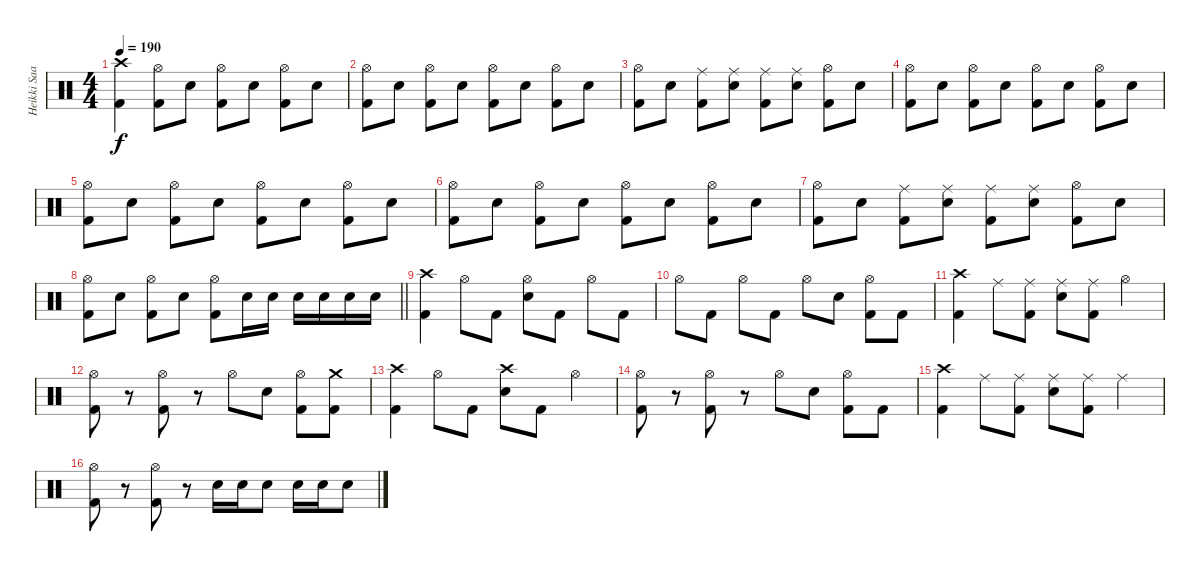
\track ("Heikki Saari" "Heikki Saa") {instrument percussion}
\staff {score}
\articulation defaults
\ts (4 4)
\tempo 190
\clef neutral
\ks c
("Crash high (hit)" "Kick (hit) 2").4{dy f} ("Hi-Hat (open)" "Kick (hit) 2").8 "Snare (hit) 2".8 ("Hi-Hat (open)" "Kick (hit) 2").8 "Snare (hit) 2".8 ("Hi-Hat (open)" "Kick (hit) 2").8 "Snare (hit) 2".8 |
("Hi-Hat (open)" "Kick (hit) 2").8 "Snare (hit) 2".8 ("Hi-Hat (open)" "Kick (hit) 2").8 "Snare (hit) 2".8 ("Hi-Hat (open)" "Kick (hit) 2").8 "Snare (hit) 2".8 ("Hi-Hat (open)" "Kick (hit) 2").8 "Snare (hit) 2".8 |
("Hi-Hat (open)" "Kick (hit) 2").8 "Snare (hit) 2".8 ("Ride (middle)" "Kick (hit) 2").8 ("Ride (middle)" "Snare (hit) 2").8 ("Ride (middle)" "Kick (hit) 2").8 ("Ride (middle)" "Snare (hit) 2").8 ("Hi-Hat (open)" "Kick (hit) 2").8 "Snare (hit) 2".8 |
("Hi-Hat (open)" "Kick (hit) 2").8 "Snare (hit) 2".8 ("Hi-Hat (open)" "Kick (hit) 2").8 "Snare (hit) 2".8 ("Hi-Hat (open)" "Kick (hit) 2").8 "Snare (hit) 2".8 ("Hi-Hat (open)" "Kick (hit) 2").8 "Snare (hit) 2".8 |
("Hi-Hat (open)" "Kick (hit) 2").8 "Snare (hit) 2".8 ("Hi-Hat (open)" "Kick (hit) 2").8 "Snare (hit) 2".8 ("Hi-Hat (open)" "Kick (hit) 2").8 "Snare (hit) 2".8 ("Hi-Hat (open)" "Kick (hit) 2").8 "Snare (hit) 2".8 |
("Hi-Hat (open)" "Kick (hit) 2").8 "Snare (hit) 2".8 ("Hi-Hat (open)" "Kick (hit) 2").8 "Snare (hit) 2".8 ("Hi-Hat (open)" "Kick (hit) 2").8 "Snare (hit) 2".8 ("Hi-Hat (open)" "Kick (hit) 2").8 "Snare (hit) 2".8 |
("Hi-Hat (open)" "Kick (hit) 2").8 "Snare (hit) 2".8 ("Ride (middle)" "Kick (hit) 2").8 ("Ride (middle)" "Snare (hit) 2").8 ("Ride (middle)" "Kick (hit) 2").8 ("Ride (middle)" "Snare (hit) 2").8 ("Hi-Hat (open)" "Kick (hit) 2").8 "Snare (hit) 2".8 |
\barLineRight lightlight
("Hi-Hat (open)" "Kick (hit) 2").8 "Snare (hit) 2".8 ("Hi-Hat (open)" "Kick (hit) 2").8 "Snare (hit) 2".8 ("Hi-Hat (open)" "Kick (hit) 2").8 "Snare (hit) 2".16 "Snare (hit) 2".16 "Snare (hit) 2".16 "Snare (hit) 2".16 "Snare (hit) 2".16 "Snare (hit) 2".16 |
("Crash high (hit)" "Kick (hit) 2").4 "Hi-Hat (open)".8 "Kick (hit) 2".8 ("Hi-Hat (open)" "Snare (hit) 2").8 "Kick (hit) 2".8 "Hi-Hat (open)".8 "Kick (hit) 2".8 |
"Hi-Hat (open)".8 "Kick (hit) 2".8 "Hi-Hat (open)".8 "Kick (hit) 2".8 "Hi-Hat (open)".8 "Snare (hit) 2".8 ("Hi-Hat (open)" "Kick (hit) 2").8 "Kick (hit) 2".8 |
("Crash high (hit)" "Kick (hit) 2").4 "Ride (middle)".8 ("Ride (middle)" "Kick (hit) 2").8 ("Ride (middle)" "Snare (hit) 2").8 ("Ride (middle)" "Kick (hit) 2").8 "Hi-Hat (open)".4 |
("Hi-Hat (open)" "Kick (hit) 2").8 r.8 ("Hi-Hat (open)" "Kick (hit) 2").8 r.8 "Hi-Hat (open)".8 "Snare (hit) 2".8 ("Hi-Hat (open)" "Kick (hit) 2").8 ("Crash medium (hit)" "Kick (hit) 2").8 |
("Crash high (hit)" "Kick (hit) 2").4 "Hi-Hat (open)".8 "Kick (hit) 2".8 ("Crash high (hit)" "Snare (hit) 2").8 "Kick (hit) 2".8 "Hi-Hat (open)".4 |
("Hi-Hat (open)" "Kick (hit) 2").8 r.8 ("Hi-Hat (open)" "Kick (hit) 2").8 r.8 "Hi-Hat (open)".8 "Snare (hit) 2".8 ("Hi-Hat (open)" "Kick (hit) 2").8 "Kick (hit) 2".8 |
("Crash high (hit)" "Kick (hit) 2").4 "Ride (middle)".8 ("Ride (middle)" "Kick (hit) 2").8 ("Ride (middle)" "Snare (hit) 2").8 ("Ride (middle)" "Kick (hit) 2").8 "Ride (middle)".4 |
("Hi-Hat (open)" "Kick (hit) 2").8 r.8 ("Hi-Hat (open)" "Kick (hit) 2").8 r.8 "Snare (hit) 2".16 "Snare (hit) 2".16 "Snare (hit) 2".8 "Snare (hit) 2".16 "Snare (hit) 2".16 "Snare (hit) 2".8
